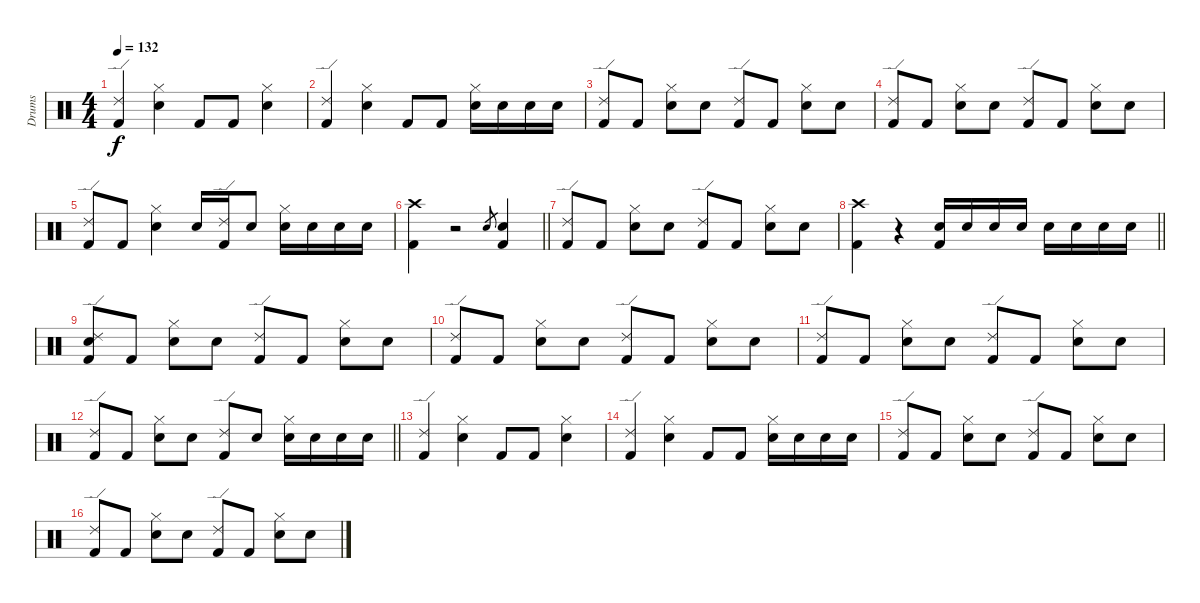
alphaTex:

\track ("Drums" "Drums") {instrument percussion}
\staff {score}
\articulation defaults
\ts (4 4)
\tempo 132
\clef neutral
\ks c
("Ride (edge) 2" "Kick (hit) 2").4{dy f} ("Hi-Hat (closed)" "Snare (hit) 2").4 "Kick (hit) 2".8 "Kick (hit) 2".8 ("Hi-Hat (closed)" "Snare (hit) 2").4 |
("Ride (edge) 2" "Kick (hit) 2").4 ("Hi-Hat (closed)" "Snare (hit) 2").4 "Kick (hit) 2".8 "Kick (hit) 2".8 ("Hi-Hat (closed)" "Snare (hit) 2").16 "Snare (hit) 2".16 "Snare (hit) 2".16 "Snare (hit) 2".16 |
("Ride (edge) 2" "Kick (hit) 2").8 "Kick (hit) 2".8 ("Hi-Hat (closed)" "Snare (hit) 2").8 "Snare (hit) 2".8 ("Ride (edge) 2" "Kick (hit) 2").8 "Kick (hit) 2".8 ("Hi-Hat (closed)" "Snare (hit) 2").8 "Snare (hit) 2".8 |
("Ride (edge) 2" "Kick (hit) 2").8 "Kick (hit) 2".8 ("Hi-Hat (closed)" "Snare (hit) 2").8 "Snare (hit) 2".8 ("Ride (edge) 2" "Kick (hit) 2").8 "Kick (hit) 2".8 ("Hi-Hat (closed)" "Snare (hit) 2").8 "Snare (hit) 2".8 |
("Ride (edge) 2" "Kick (hit) 2").8 "Kick (hit) 2".8 ("Hi-Hat (closed)" "Snare (hit) 2").4 "Snare (hit) 2".16 ("Ride (edge) 2" "Kick (hit) 2").16 "Snare (hit) 2".8 ("Hi-Hat (closed)" "Snare (hit) 2").16 "Snare (hit) 2".16 "Snare (hit) 2".16 "Snare (hit) 2".16 |
\barLineRight lightlight
("Crash high (hit)" "Kick (hit) 2").4{volume 9} r.2 "Snare (hit) 2".8{gr} ("Snare (hit) 2" "Kick (hit) 2").4 |
("Ride (edge) 2" "Kick (hit) 2").8 "Kick (hit) 2".8 ("Hi-Hat (closed)" "Snare (hit) 2").8 "Snare (hit) 2".8 ("Ride (edge) 2" "Kick (hit) 2").8 "Kick (hit) 2".8 ("Hi-Hat (closed)" "Snare (hit) 2").8 "Snare (hit) 2".8 |
\barLineRight lightlight
("Crash high (hit)" "Kick (hit) 2").4{volume 9} r.4 ("Snare (hit) 2" "Kick (hit) 2").16 "Snare (hit) 2".16 "Snare (hit) 2".16 "Snare (hit) 2".16 "Snare (hit) 2".16 "Snare (hit) 2".16 "Snare (hit) 2".16 "Snare (hit) 2".16 |
("Ride (edge) 2" "Snare (hit) 2" "Kick (hit) 2").8{volume 9} "Kick (hit) 2".8 ("Hi-Hat (closed)" "Snare (hit) 2").8 "Snare (hit) 2".8 ("Ride (edge) 2" "Kick (hit) 2").8 "Kick (hit) 2".8 ("Hi-Hat (closed)" "Snare (hit) 2").8 "Snare (hit) 2".8 |
("Ride (edge) 2" "Kick (hit) 2").8 "Kick (hit) 2".8 ("Hi-Hat (closed)" "Snare (hit) 2").8 "Snare (hit) 2".8 ("Ride (edge) 2" "Kick (hit) 2").8 "Kick (hit) 2".8 ("Hi-Hat (closed)" "Snare (hit) 2").8 "Snare (hit) 2".8 |
("Ride (edge) 2" "Kick (hit) 2").8 "Kick (hit) 2".8 ("Hi-Hat (closed)" "Snare (hit) 2").8 "Snare (hit) 2".8 ("Ride (edge) 2" "Kick (hit) 2").8 "Kick (hit) 2".8 ("Hi-Hat (closed)" "Snare (hit) 2").8 "Snare (hit) 2".8 |
\barLineRight lightlight
("Ride (edge) 2" "Kick (hit) 2").8 "Kick (hit) 2".8 ("Hi-Hat (closed)" "Snare (hit) 2").8 "Snare (hit) 2".8 ("Ride (edge) 2" "Kick (hit) 2").8 "Snare (hit) 2".8 ("Hi-Hat (closed)" "Snare (hit) 2").16 "Snare (hit) 2".16 "Snare (hit) 2".16 "Snare (hit) 2".16 |
("Ride (edge) 2" "Kick (hit) 2").4 ("Hi-Hat (closed)" "Snare (hit) 2").4 "Kick (hit) 2".8 "Kick (hit) 2".8 ("Hi-Hat (closed)" "Snare (hit) 2").4 |
("Ride (edge) 2" "Kick (hit) 2").4 ("Hi-Hat (closed)" "Snare (hit) 2").4 "Kick (hit) 2".8 "Kick (hit) 2".8 ("Hi-Hat (closed)" "Snare (hit) 2").16 "Snare (hit) 2".16 "Snare (hit) 2".16 "Snare (hit) 2".16 |
("Ride (edge) 2" "Kick (hit) 2").8 "Kick (hit) 2".8 ("Hi-Hat (closed)" "Snare (hit) 2").8 "Snare (hit) 2".8 ("Ride (edge) 2" "Kick (hit) 2").8 "Kick (hit) 2".8 ("Hi-Hat (closed)" "Snare (hit) 2").8 "Snare (hit) 2".8 |
("Ride (edge) 2" "Kick (hit) 2").8 "Kick (hit) 2".8 ("Hi-Hat (closed)" "Snare (hit) 2").8 "Snare (hit) 2".8 ("Ride (edge) 2" "Kick (hit) 2").8 "Kick (hit) 2".8 ("Hi-Hat (closed)" "Snare (hit) 2").8 "Snare (hit) 2".8
